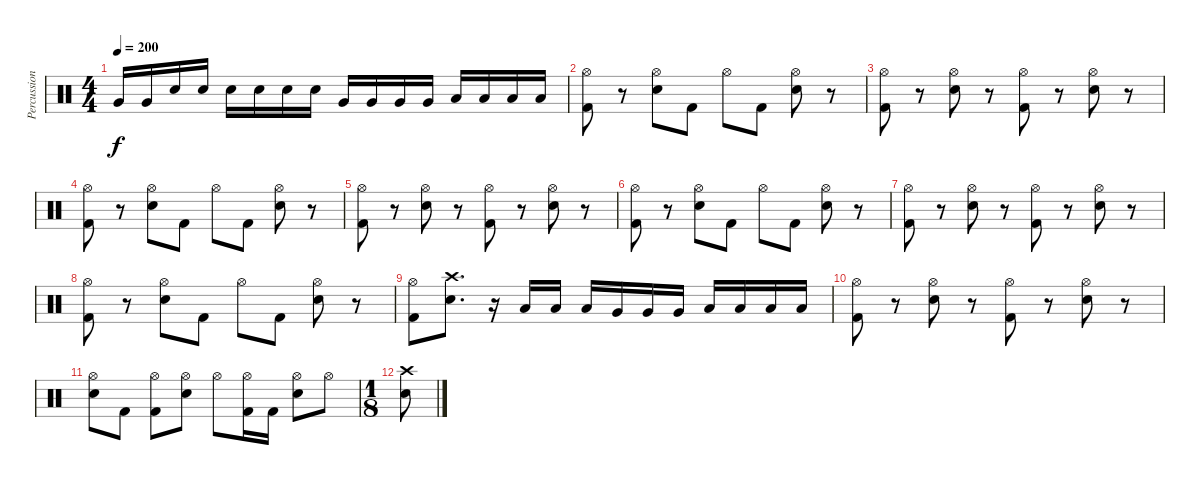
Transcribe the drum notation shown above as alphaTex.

\track ("Percussion" "Percussion") {instrument percussion}
\staff {score}
\articulation defaults
\ts (4 4)
\tempo 200
\clef neutral
\ks c "Very Low Tom (hit)".16{dy f} "Very Low Tom (hit)".16 "Electric Snare (hit)".16 "Electric Snare (hit)".16 "Electric Snare (hit)".16 "Electric Snare (hit)".16 "Electric Snare (hit)".16 "Electric Snare (hit)".16 "Very Low Tom (hit)".16 "Very Low Tom (hit)".16 "Very Low Tom (hit)".16 "Very Low Tom (hit)".16 "Low Floor Tom (hit)".16 "Low Floor Tom (hit)".16 "Low Floor Tom (hit)".16 "Low Floor Tom (hit)".16
|
("Hi-Hat (open)" "Kick (hit) 2").8 r.8 ("Hi-Hat (open)" "Electric Snare (hit)").8 "Kick (hit) 2".8 "Hi-Hat (open)".8 "Kick (hit) 2".8 ("Hi-Hat (open)" "Electric Snare (hit)").8 r.8 |
("Hi-Hat (open)" "Kick (hit) 2").8 r.8 ("Hi-Hat (open)" "Electric Snare (hit)").8 r.8 ("Hi-Hat (open)" "Kick (hit) 2").8 r.8 ("Hi-Hat (open)" "Electric Snare (hit)").8 r.8 |
("Hi-Hat (open)" "Kick (hit) 2").8 r.8 ("Hi-Hat (open)" "Electric Snare (hit)").8 "Kick (hit) 2".8 "Hi-Hat (open)".8 "Kick (hit) 2".8 ("Hi-Hat (open)" "Electric Snare (hit)").8 r.8 |
("Hi-Hat (open)" "Kick (hit) 2").8 r.8 ("Hi-Hat (open)" "Electric Snare (hit)").8 r.8 ("Hi-Hat (open)" "Kick (hit) 2").8 r.8 ("Hi-Hat (open)" "Electric Snare (hit)").8 r.8 |
("Hi-Hat (open)" "Kick (hit) 2").8 r.8 ("Hi-Hat (open)" "Electric Snare (hit)").8 "Kick (hit) 2".8 "Hi-Hat (open)".8 "Kick (hit) 2".8 ("Hi-Hat (open)" "Electric Snare (hit)").8 r.8 |
("Hi-Hat (open)" "Kick (hit) 2").8 r.8 ("Hi-Hat (open)" "Electric Snare (hit)").8 r.8 ("Hi-Hat (open)" "Kick (hit) 2").8 r.8 ("Hi-Hat (open)" "Electric Snare (hit)").8 r.8 |
("Hi-Hat (open)" "Kick (hit) 2").8 r.8 ("Hi-Hat (open)" "Electric Snare (hit)").8 "Kick (hit) 2".8 "Hi-Hat (open)".8 "Kick (hit) 2".8 ("Hi-Hat (open)" "Electric Snare (hit)").8 r.8 |
("Hi-Hat (open)" "Kick (hit) 2").8 ("Crash high (hit)" "Electric Snare (hit)").8{d} r.16 "Low Tom (hit)".16 "Low Tom (hit)".16 "Low Tom (hit)".16 "Very Low Tom (hit)".16 "Very Low Tom (hit)".16 "Very Low Tom (hit)".16 "Low Floor Tom (hit)".16 "Low Floor Tom (hit)".16 "Low Floor Tom (hit)".16 "Low Floor Tom (hit)".16 |
("Hi-Hat (open)" "Kick (hit) 2").8 r.8 ("Hi-Hat (open)" "Electric Snare (hit)").8 r.8 ("Hi-Hat (open)" "Kick (hit) 2").8 r.8 ("Hi-Hat (open)" "Electric Snare (hit)").8 r.8 |
("Hi-Hat (open)" "Electric Snare (hit)").8 "Kick (hit) 2".8 ("Hi-Hat (open)" "Kick (hit) 2").8 ("Hi-Hat (open)" "Electric Snare (hit)").8 "Hi-Hat (open)".8 ("Hi-Hat (open)" "Kick (hit) 2").16 "Kick (hit) 2".16 ("Hi-Hat (open)" "Electric Snare (hit)").8 "Hi-Hat (open)".8 |
\ts (1 8)
("Crash high (hit)" "Electric Snare (hit)").8
